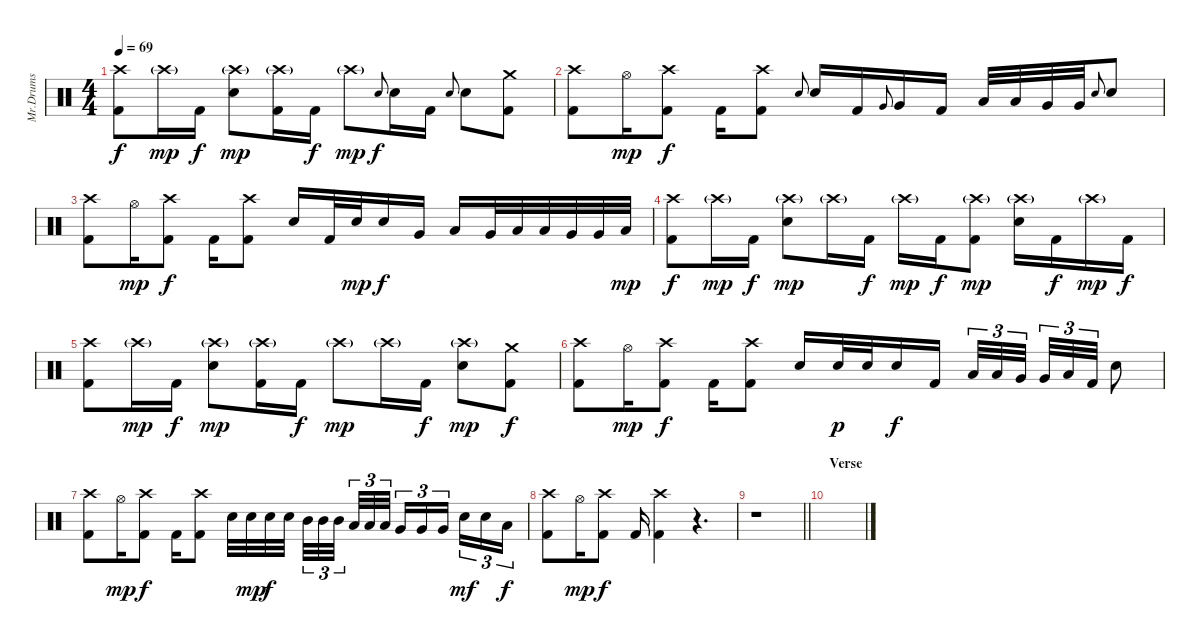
\track ("Mr.Drums" "Mr.Drums") {instrument percussion}
\staff {score}
\articulation defaults
\ts (4 4)
\tempo 69
\clef neutral
\ks c
("Crash high (hit)" "Kick (hit) 2").8{dy f} "Crash high (hit)"{g}.16{dy mp} "Kick (hit) 2".16{dy f} ("Crash high (hit)"{g} "Electric Snare (hit)").8{dy mp} ("Crash high (hit)"{g} "Kick (hit) 2").16 "Kick (hit) 2".16{dy f} "Crash high (hit)"{g}.8{dy mp} "Electric Snare (hit)".8{gr onbeat dy f} "Electric Snare (hit)".16 "Kick (hit) 2".16 "Electric Snare (hit)".8{gr onbeat} "Electric Snare (hit)".8 ("Crash medium (hit)" "Kick (hit) 2").8 |
("Crash high (hit)" "Kick (hit) 2").8 "Hi-Hat (open)".16{dy mp} ("Crash high (hit)" "Kick (hit) 2").8{dy f} "Kick (hit) 2".16 ("Crash high (hit)" "Kick (hit) 2").8 "Electric Snare (hit)".8{gr onbeat} "Electric Snare (hit)".16 "Kick (hit) 2".16 "Very Low Tom (hit)".8{gr onbeat} "Very Low Tom (hit)".16 "Kick (hit) 2".16 "Low Tom (hit)".32 "Low Tom (hit)".32 "Very Low Tom (hit)".32 "Very Low Tom (hit)".32 "Electric Snare (hit)".8{gr onbeat} "Electric Snare (hit)".8 |
("Crash high (hit)" "Kick (hit) 2").8 "Hi-Hat (open)".16{dy mp} ("Crash high (hit)" "Kick (hit) 2").8{dy f} "Kick (hit) 2".16 ("Crash high (hit)" "Kick (hit) 2").8 "Electric Snare (hit)".16 "Kick (hit) 2".32 "Electric Snare (hit)".32{dy mp} "Electric Snare (hit)".16{dy f} "Very Low Tom (hit)".16 "Low Tom (hit)".16 "Very Low Tom (hit)".32 "Low Tom (hit)".32 "Low Tom (hit)".32 "Very Low Tom (hit)".32 "Very Low Tom (hit)".32 "Low Floor Tom (hit)".32{dy mp} |
("Crash high (hit)" "Kick (hit) 2").8{dy f} "Crash high (hit)"{g}.16{dy mp} "Kick (hit) 2".16{dy f} ("Crash high (hit)"{g} "Electric Snare (hit)").8{dy mp} "Crash high (hit)"{g}.16 "Kick (hit) 2".16{dy f} "Crash high (hit)"{g}.16{dy mp} "Kick (hit) 2".16{dy f} ("Crash high (hit)"{g} "Kick (hit) 2").8{dy mp} ("Crash high (hit)"{g} "Electric Snare (hit)").16 "Kick (hit) 2".16{dy f} "Crash high (hit)"{g}.16{dy mp} "Kick (hit) 2".16{dy f} |
("Crash high (hit)" "Kick (hit) 2").8 "Crash high (hit)"{g}.16{dy mp} "Kick (hit) 2".16{dy f} ("Crash high (hit)"{g} "Electric Snare (hit)").8{dy mp} ("Crash high (hit)"{g} "Kick (hit) 2").16 "Kick (hit) 2".16{dy f} "Crash high (hit)"{g}.8{dy mp} "Crash high (hit)"{g}.16 "Kick (hit) 2".16{dy f} ("Crash high (hit)"{g} "Electric Snare (hit)").8{dy mp} ("Crash medium (hit)" "Kick (hit) 2").8{dy f} |
("Crash high (hit)" "Kick (hit) 2").8 "Hi-Hat (open)".16{dy mp} ("Crash high (hit)" "Kick (hit) 2").8{dy f} "Kick (hit) 2".16 ("Crash high (hit)" "Kick (hit) 2").8 "Electric Snare (hit)".16 "Electric Snare (hit)".32{dy p} "Electric Snare (hit)".32 "Electric Snare (hit)".16{dy f} "Kick (hit) 2".16 "Low Tom (hit)".32{tu (3 2)} "Low Tom (hit)".32{tu (3 2)} "Very Low Tom (hit)".32{tu (3 2) beam splitsecondary} "Very Low Tom (hit)".32{tu (3 2)} "Low Floor Tom (hit)".32{tu (3 2)} "Kick (hit) 2".32{tu (3 2)} "Electric Snare (hit)".8 |
("Crash high (hit)" "Kick (hit) 2").8 "Hi-Hat (open)".16{dy mp} ("Crash high (hit)" "Kick (hit) 2").8{dy f} "Kick (hit) 2".16 ("Crash high (hit)" "Kick (hit) 2").8 "Electric Snare (hit)".32 "Electric Snare (hit)".32{dy mp} "Electric Snare (hit)".32{dy f} "Electric Snare (hit)".32{beam splitsecondary} "Mid Tom (hit)".32{tu (3 2)} "Mid Tom (hit)".32{tu (3 2)} "Mid Tom (hit)".32{tu (3 2) beam splitsecondary} "Low Tom (hit)".32{tu (3 2)} "Low Tom (hit)".32{tu (3 2)} "Low Tom (hit)".32{tu (3 2)} "Very Low Tom (hit)".16{tu (3 2)} "Very Low Tom (hit)".16{tu (3 2)} "Very Low Tom (hit)".16{tu (3 2) beam splitsecondary} "Electric Snare (hit)".16{tu (3 2) dy mf} "Electric Snare (hit)".16{tu (3 2)} "Low Floor Tom (hit)".16{tu (3 2) dy f} |
("Crash high (hit)" "Kick (hit) 2").8 "Hi-Hat (open)".16{dy mp} ("Crash high (hit)" "Kick (hit) 2").8{dy f} "Kick (hit) 2".16 ("Crash high (hit)" "Kick (hit) 2").4 r.4{d} |
\barLineRight lightlight
r.1 |
\section ("" "Verse")
